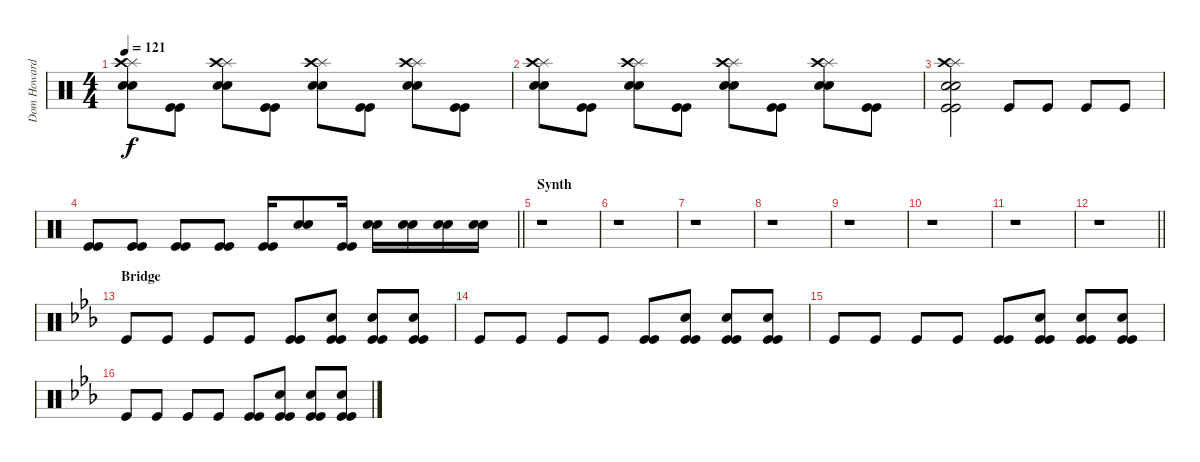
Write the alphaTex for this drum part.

\track ("Dom Howard - Drums" "Dom Howard") {instrument percussion}
\staff {score}
\articulation defaults
\ts (4 4)
\tempo 121
\clef neutral
\ks c
("Splash (hit)" "Crash high (hit)" "Electric Snare (hit)" "Electric Snare (hit)").8{dy f} ("Kick (hit)" "Kick (hit)").8 ("Splash (hit)" "Crash high (hit)" "Electric Snare (hit)" "Electric Snare (hit)").8 ("Kick (hit)" "Kick (hit)").8 ("Splash (hit)" "Crash high (hit)" "Electric Snare (hit)" "Electric Snare (hit)").8 ("Kick (hit)" "Kick (hit)").8 ("Splash (hit)" "Crash high (hit)" "Electric Snare (hit)" "Electric Snare (hit)").8 ("Kick (hit)" "Kick (hit)").8 |
("Splash (hit)" "Crash high (hit)" "Electric Snare (hit)" "Electric Snare (hit)").8 ("Kick (hit)" "Kick (hit)").8 ("Splash (hit)" "Crash high (hit)" "Electric Snare (hit)" "Electric Snare (hit)").8 ("Kick (hit)" "Kick (hit)").8 ("Splash (hit)" "Crash high (hit)" "Electric Snare (hit)" "Electric Snare (hit)").8 ("Kick (hit)" "Kick (hit)").8 ("Splash (hit)" "Crash high (hit)" "Electric Snare (hit)" "Electric Snare (hit)").8 ("Kick (hit)" "Kick (hit)").8 |
("Splash (hit)" "Crash high (hit)" "Electric Snare (hit)" "Electric Snare (hit)" "Kick (hit)" "Kick (hit)").2 "Kick (hit)".8 "Kick (hit)".8 "Kick (hit)".8 "Kick (hit)".8 |
\barLineRight lightlight
("Kick (hit)" "Kick (hit)").8 ("Kick (hit)" "Kick (hit)").8 ("Kick (hit)" "Kick (hit)").8 ("Kick (hit)" "Kick (hit)").8 ("Kick (hit)" "Kick (hit)").16 ("Electric Snare (hit)" "Electric Snare (hit)").8 ("Kick (hit)" "Kick (hit)").16 ("Electric Snare (hit)" "Electric Snare (hit)").16 ("Electric Snare (hit)" "Electric Snare (hit)").16 ("Electric Snare (hit)" "Electric Snare (hit)").16 ("Electric Snare (hit)" "Electric Snare (hit)").16 |
\section ("" "Synth")
r.1 |
r.1 |
r.1 |
r.1 |
r.1 |
r.1 |
r.1 |
\barLineRight lightlight
r.1 |
\section ("" "Bridge")
\ks eb "Kick (hit)".8 "Kick (hit)".8 "Kick (hit)".8 "Kick (hit)".8
("Kick (hit)" "Kick (hit)").8 ("Electric Snare (hit)" "Kick (hit)" "Kick (hit)").8 ("Electric Snare (hit)" "Kick (hit)" "Kick (hit)").8 ("Electric Snare (hit)" "Kick (hit)" "Kick (hit)").8 |
"Kick (hit)".8 "Kick (hit)".8 "Kick (hit)".8 "Kick (hit)".8 ("Kick (hit)" "Kick (hit)").8 ("Electric Snare (hit)" "Kick (hit)" "Kick (hit)").8 ("Electric Snare (hit)" "Kick (hit)" "Kick (hit)").8 ("Electric Snare (hit)" "Kick (hit)" "Kick (hit)").8 |
"Kick (hit)".8 "Kick (hit)".8 "Kick (hit)".8 "Kick (hit)".8 ("Kick (hit)" "Kick (hit)").8 ("Electric Snare (hit)" "Kick (hit)" "Kick (hit)").8 ("Electric Snare (hit)" "Kick (hit)" "Kick (hit)").8 ("Electric Snare (hit)" "Kick (hit)" "Kick (hit)").8 |
"Kick (hit)".8 "Kick (hit)".8 "Kick (hit)".8 "Kick (hit)".8 ("Kick (hit)" "Kick (hit)").8 ("Electric Snare (hit)" "Kick (hit)" "Kick (hit)").8 ("Electric Snare (hit)" "Kick (hit)" "Kick (hit)").8 ("Electric Snare (hit)" "Kick (hit)" "Kick (hit)").8
